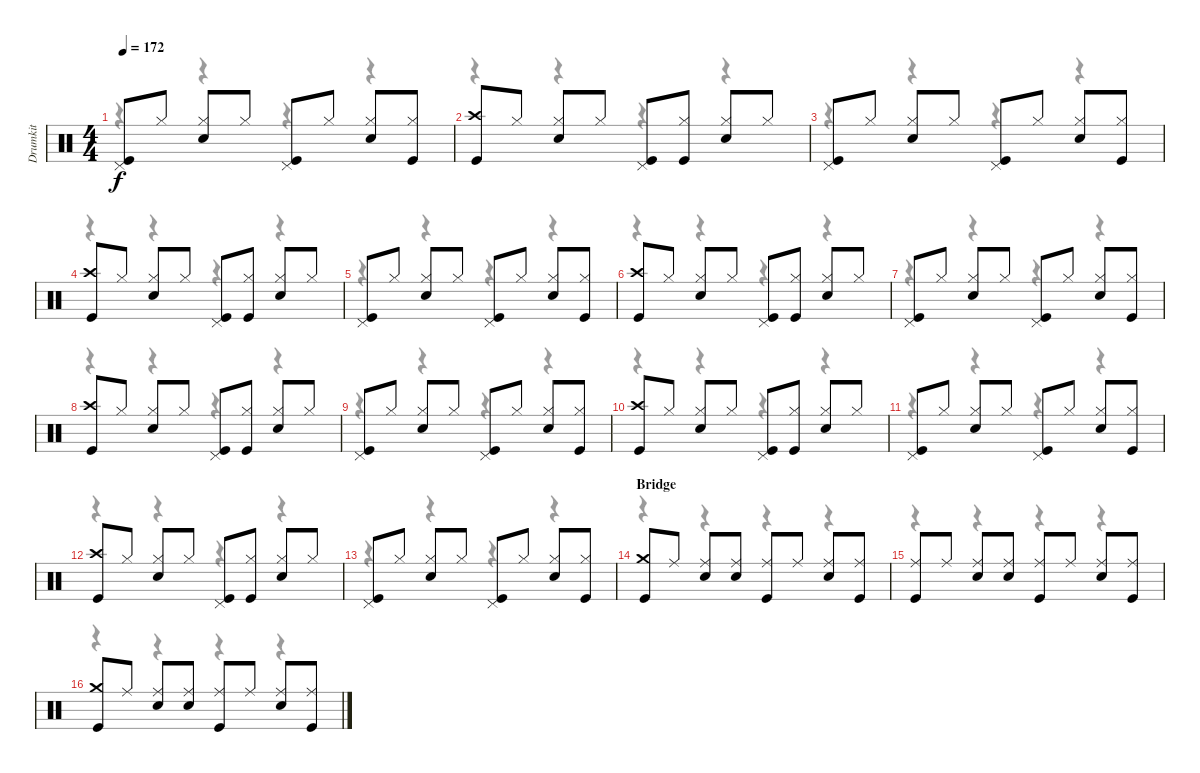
\track ("Drumkit" "Drumkit") {instrument percussion}
\staff {score}
\articulation defaults
\voice
\ts (4 4)
\tempo 172
\clef neutral
\ks c
("Pedal Hi-Hat (hit)" "Kick (hit)").8{dy f} "Hi-Hat (closed)".8 ("Hi-Hat (closed)" "Snare (hit) 2").8 "Hi-Hat (closed)".8 ("Pedal Hi-Hat (hit)" "Kick (hit)").8 "Hi-Hat (closed)".8 ("Hi-Hat (closed)" "Snare (hit) 2").8 ("Hi-Hat (closed)" "Kick (hit)").8 |
("Crash high (hit)" "Kick (hit)").8 "Hi-Hat (closed)".8 ("Hi-Hat (closed)" "Snare (hit) 2").8 "Hi-Hat (closed)".8 ("Pedal Hi-Hat (hit)" "Kick (hit)").8 ("Hi-Hat (closed)" "Kick (hit)").8 ("Hi-Hat (closed)" "Snare (hit) 2").8 "Hi-Hat (closed)".8 |
("Pedal Hi-Hat (hit)" "Kick (hit)").8 "Hi-Hat (closed)".8 ("Hi-Hat (closed)" "Snare (hit) 2").8 "Hi-Hat (closed)".8 ("Pedal Hi-Hat (hit)" "Kick (hit)").8 "Hi-Hat (closed)".8 ("Hi-Hat (closed)" "Snare (hit) 2").8 ("Hi-Hat (closed)" "Kick (hit)").8 |
("Crash high (hit)" "Kick (hit)").8 "Hi-Hat (closed)".8 ("Hi-Hat (closed)" "Snare (hit) 2").8 "Hi-Hat (closed)".8 ("Pedal Hi-Hat (hit)" "Kick (hit)").8 ("Hi-Hat (closed)" "Kick (hit)").8 ("Hi-Hat (closed)" "Snare (hit) 2").8 "Hi-Hat (closed)".8 |
("Pedal Hi-Hat (hit)" "Kick (hit)").8 "Hi-Hat (closed)".8 ("Hi-Hat (closed)" "Snare (hit) 2").8 "Hi-Hat (closed)".8 ("Pedal Hi-Hat (hit)" "Kick (hit)").8 "Hi-Hat (closed)".8 ("Hi-Hat (closed)" "Snare (hit) 2").8 ("Hi-Hat (closed)" "Kick (hit)").8 |
("Crash high (hit)" "Kick (hit)").8 "Hi-Hat (closed)".8 ("Hi-Hat (closed)" "Snare (hit) 2").8 "Hi-Hat (closed)".8 ("Pedal Hi-Hat (hit)" "Kick (hit)").8 ("Hi-Hat (closed)" "Kick (hit)").8 ("Hi-Hat (closed)" "Snare (hit) 2").8 "Hi-Hat (closed)".8 |
("Pedal Hi-Hat (hit)" "Kick (hit)").8 "Hi-Hat (closed)".8 ("Hi-Hat (closed)" "Snare (hit) 2").8 "Hi-Hat (closed)".8 ("Pedal Hi-Hat (hit)" "Kick (hit)").8 "Hi-Hat (closed)".8 ("Hi-Hat (closed)" "Snare (hit) 2").8 ("Hi-Hat (closed)" "Kick (hit)").8 |
("Crash high (hit)" "Kick (hit)").8 "Hi-Hat (closed)".8 ("Hi-Hat (closed)" "Snare (hit) 2").8 "Hi-Hat (closed)".8 ("Pedal Hi-Hat (hit)" "Kick (hit)").8 ("Hi-Hat (closed)" "Kick (hit)").8 ("Hi-Hat (closed)" "Snare (hit) 2").8 "Hi-Hat (closed)".8 |
("Pedal Hi-Hat (hit)" "Kick (hit)").8 "Hi-Hat (closed)".8 ("Hi-Hat (closed)" "Snare (hit) 2").8 "Hi-Hat (closed)".8 ("Pedal Hi-Hat (hit)" "Kick (hit)").8 "Hi-Hat (closed)".8 ("Hi-Hat (closed)" "Snare (hit) 2").8 ("Hi-Hat (closed)" "Kick (hit)").8 |
("Crash high (hit)" "Kick (hit)").8 "Hi-Hat (closed)".8 ("Hi-Hat (closed)" "Snare (hit) 2").8 "Hi-Hat (closed)".8 ("Pedal Hi-Hat (hit)" "Kick (hit)").8 ("Hi-Hat (closed)" "Kick (hit)").8 ("Hi-Hat (closed)" "Snare (hit) 2").8 "Hi-Hat (closed)".8 |
("Pedal Hi-Hat (hit)" "Kick (hit)").8 "Hi-Hat (closed)".8 ("Hi-Hat (closed)" "Snare (hit) 2").8 "Hi-Hat (closed)".8 ("Pedal Hi-Hat (hit)" "Kick (hit)").8 "Hi-Hat (closed)".8 ("Hi-Hat (closed)" "Snare (hit) 2").8 ("Hi-Hat (closed)" "Kick (hit)").8 |
("Crash high (hit)" "Kick (hit)").8 "Hi-Hat (closed)".8 ("Hi-Hat (closed)" "Snare (hit) 2").8 "Hi-Hat (closed)".8 ("Pedal Hi-Hat (hit)" "Kick (hit)").8 ("Hi-Hat (closed)" "Kick (hit)").8 ("Hi-Hat (closed)" "Snare (hit) 2").8 "Hi-Hat (closed)".8 |
("Pedal Hi-Hat (hit)" "Kick (hit)").8 "Hi-Hat (closed)".8 ("Hi-Hat (closed)" "Snare (hit) 2").8 "Hi-Hat (closed)".8 ("Pedal Hi-Hat (hit)" "Kick (hit)").8 "Hi-Hat (closed)".8 ("Hi-Hat (closed)" "Snare (hit) 2").8 ("Hi-Hat (closed)" "Kick (hit)").8 |
\section ("" "Bridge")
("Crash medium (hit)" "Kick (hit)").8 "Ride (middle)".8 ("Ride (middle)" "Snare (hit) 2").8 ("Ride (middle)" "Snare (hit) 2").8 ("Ride (middle)" "Kick (hit)").8 "Ride (middle)".8 ("Ride (middle)" "Snare (hit) 2").8 ("Ride (middle)" "Kick (hit)").8 |
("Ride (middle)" "Kick (hit)").8 "Ride (middle)".8 ("Ride (middle)" "Snare (hit) 2").8 ("Ride (middle)" "Snare (hit) 2").8 ("Ride (middle)" "Kick (hit)").8 "Ride (middle)".8 ("Ride (middle)" "Snare (hit) 2").8 ("Ride (middle)" "Kick (hit)").8 |
("Crash medium (hit)" "Kick (hit)").8 "Ride (middle)".8 ("Ride (middle)" "Snare (hit) 2").8 ("Ride (middle)" "Snare (hit) 2").8 ("Ride (middle)" "Kick (hit)").8 "Ride (middle)".8 ("Ride (middle)" "Snare (hit) 2").8 ("Ride (middle)" "Kick (hit)").8
\voice
\clef neutral
\ottava regular
\simile none
\ks c
r.4{dy f} r.4 r.4 r.4 |
r.4 r.4 r.4 r.4 |
r.4 r.4 r.4 r.4 |
r.4 r.4 r.4 r.4 |
r.4 r.4 r.4 r.4 |
r.4 r.4 r.4 r.4 |
r.4 r.4 r.4 r.4 |
r.4 r.4 r.4 r.4 |
r.4 r.4 r.4 r.4 |
r.4 r.4 r.4 r.4 |
r.4 r.4 r.4 r.4 |
r.4 r.4 r.4 r.4 |
r.4 r.4 r.4 r.4 |
r.4 r.4 r.4 r.4 |
r.4 r.4 r.4 r.4 |
r.4 r.4 r.4 r.4
